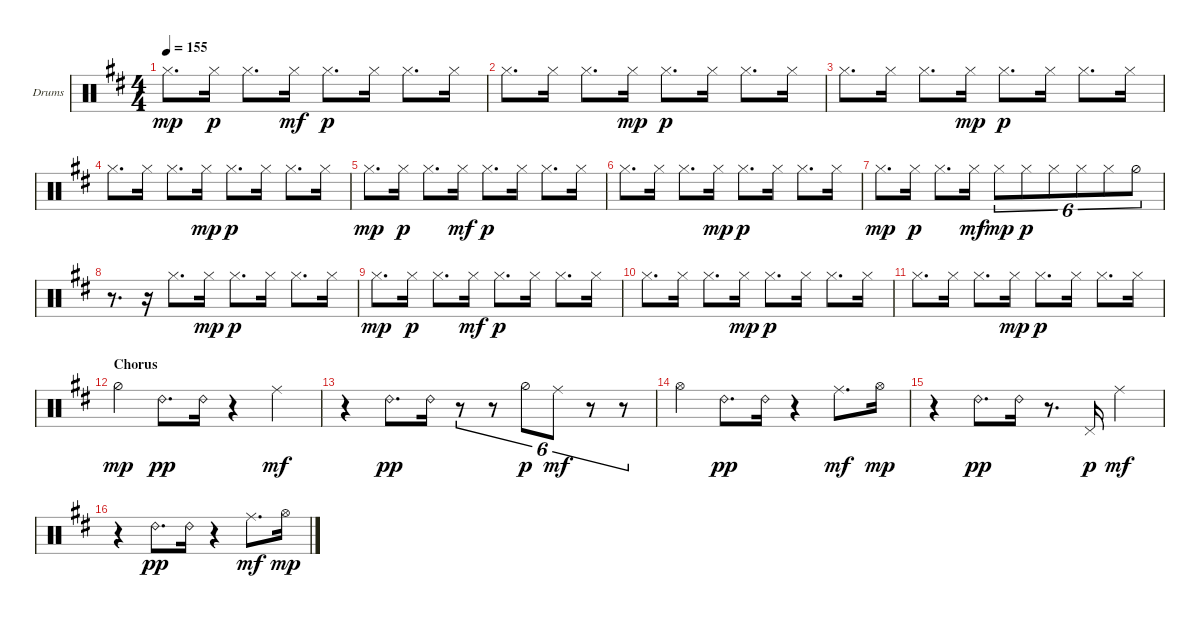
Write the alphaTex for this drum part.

\bracketExtendMode groupsimilarinstruments
\firstSystemTrackNameOrientation horizontal
\otherSystemsTrackNameOrientation horizontal
\track ("Perc" "Drums") {instrument percussion}
\staff {score}
\articulation defaults
\ts (4 4)
\tempo 155
\clef neutral
\ks d "Hi-Hat (closed)".8{d dy mp} "Hi-Hat (closed)".16{dy p} "Hi-Hat (closed)".8{d} "Hi-Hat (closed)".16{dy mf} "Hi-Hat (closed)".8{d dy p} "Hi-Hat (closed)".16 "Hi-Hat (closed)".8{d} "Hi-Hat (closed)".16
|
"Hi-Hat (closed)".8{d} "Hi-Hat (closed)".16 "Hi-Hat (closed)".8{d} "Hi-Hat (closed)".16{dy mp} "Hi-Hat (closed)".8{d dy p} "Hi-Hat (closed)".16 "Hi-Hat (closed)".8{d} "Hi-Hat (closed)".16 |
"Hi-Hat (closed)".8{d} "Hi-Hat (closed)".16 "Hi-Hat (closed)".8{d} "Hi-Hat (closed)".16{dy mp} "Hi-Hat (closed)".8{d dy p} "Hi-Hat (closed)".16 "Hi-Hat (closed)".8{d} "Hi-Hat (closed)".16 |
"Hi-Hat (closed)".8{d} "Hi-Hat (closed)".16 "Hi-Hat (closed)".8{d} "Hi-Hat (closed)".16{dy mp} "Hi-Hat (closed)".8{d dy p} "Hi-Hat (closed)".16 "Hi-Hat (closed)".8{d} "Hi-Hat (closed)".16 |
"Hi-Hat (closed)".8{d dy mp} "Hi-Hat (closed)".16{dy p} "Hi-Hat (closed)".8{d} "Hi-Hat (closed)".16{dy mf} "Hi-Hat (closed)".8{d dy p} "Hi-Hat (closed)".16 "Hi-Hat (closed)".8{d} "Hi-Hat (closed)".16 |
"Hi-Hat (closed)".8{d} "Hi-Hat (closed)".16 "Hi-Hat (closed)".8{d} "Hi-Hat (closed)".16{dy mp} "Hi-Hat (closed)".8{d dy p} "Hi-Hat (closed)".16 "Hi-Hat (closed)".8{d} "Hi-Hat (closed)".16 |
"Hi-Hat (closed)".8{d dy mp} "Hi-Hat (closed)".16{dy p} "Hi-Hat (closed)".8{d} "Hi-Hat (closed)".16{dy mf} "Hi-Hat (closed)".8{tu (6 4) dy mp} "Hi-Hat (closed)".8{tu (6 4) dy p} "Hi-Hat (closed)".8{tu (6 4)} "Hi-Hat (closed)".8{tu (6 4)} "Hi-Hat (closed)".8{tu (6 4)} "Hi-Hat (half)".8{tu (6 4)} |
r.8{d} r.16 "Hi-Hat (closed)".8{d} "Hi-Hat (closed)".16{dy mp} "Hi-Hat (closed)".8{d dy p} "Hi-Hat (closed)".16 "Hi-Hat (closed)".8{d} "Hi-Hat (closed)".16 |
"Hi-Hat (closed)".8{d dy mp} "Hi-Hat (closed)".16{dy p} "Hi-Hat (closed)".8{d} "Hi-Hat (closed)".16{dy mf} "Hi-Hat (closed)".8{d dy p} "Hi-Hat (closed)".16 "Hi-Hat (closed)".8{d} "Hi-Hat (closed)".16 |
"Hi-Hat (closed)".8{d} "Hi-Hat (closed)".16 "Hi-Hat (closed)".8{d} "Hi-Hat (closed)".16{dy mp} "Hi-Hat (closed)".8{d dy p} "Hi-Hat (closed)".16 "Hi-Hat (closed)".8{d} "Hi-Hat (closed)".16 |
"Hi-Hat (closed)".8{d} "Hi-Hat (closed)".16 "Hi-Hat (closed)".8{d} "Hi-Hat (closed)".16{dy mp} "Hi-Hat (closed)".8{d dy p} "Hi-Hat (closed)".16 "Hi-Hat (closed)".8{d} "Hi-Hat (closed)".16 |
\section ("" "Chorus")
"Hi-Hat (half)".4{dy mp} "Ride (bell) 2".8{d dy pp} "Ride (bell) 2".16 r.4 "Ride (middle)".4{dy mf} |
r.4 "Ride (bell) 2".8{d dy pp} "Ride (bell) 2".16 r.8{tu (6 4)} r.8{tu (6 4)} "Hi-Hat (half)".8{tu (6 4) dy p} "Ride (middle)".8{tu (6 4) dy mf} r.8{tu (6 4)} r.8{tu (6 4)} |
"Hi-Hat (open)".4 "Ride (bell) 2".8{d dy pp} "Ride (bell) 2".16 r.4 "Ride (middle)".8{d dy mf} "Hi-Hat (open)".16{dy mp} |
r.4 "Ride (bell) 2".8{d dy pp} "Ride (bell) 2".16 r.8{d} "Pedal Hi-Hat (hit)".16{dy p} "Ride (middle)".4{dy mf} |
r.4 "Ride (bell) 2".8{d dy pp} "Ride (bell) 2".16 r.4 "Ride (middle)".8{d dy mf} "Hi-Hat (open)".16{dy mp}
